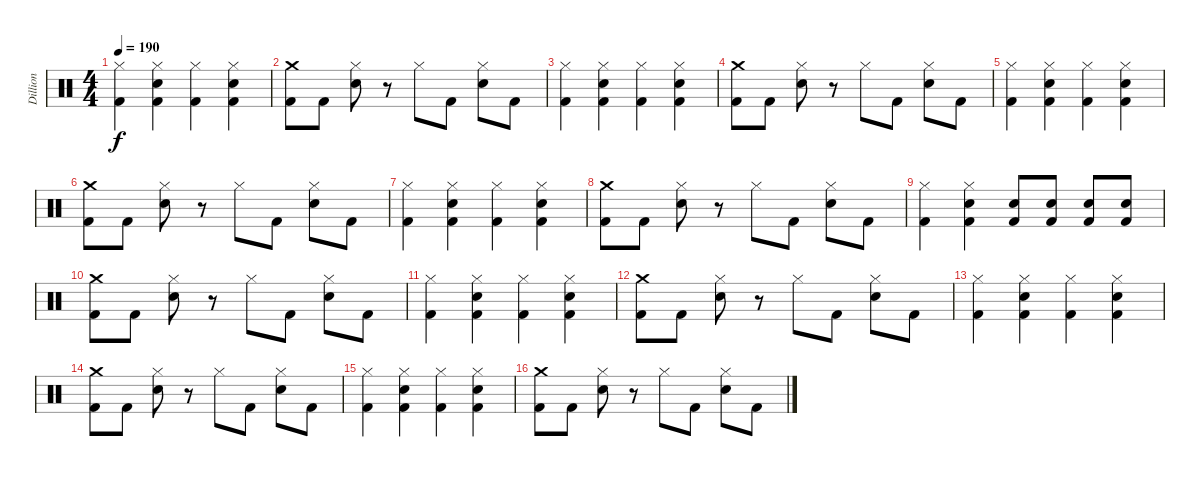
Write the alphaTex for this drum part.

\track ("Dillion" "Dillion") {instrument percussion}
\staff {score}
\articulation defaults
\ts (4 4)
\tempo 190
\clef neutral
\ks c
("Hi-Hat (closed)" "Kick (hit) 2").4{dy f} ("Hi-Hat (closed)" "Electric Snare (hit)" "Kick (hit) 2").4 ("Hi-Hat (closed)" "Kick (hit) 2").4 ("Hi-Hat (closed)" "Electric Snare (hit)" "Kick (hit) 2").4 |
("Crash medium (hit)" "Kick (hit) 2").8 "Kick (hit) 2".8 ("Hi-Hat (closed)" "Electric Snare (hit)").8 r.8 "Hi-Hat (closed)".8 "Kick (hit) 2".8 ("Hi-Hat (closed)" "Electric Snare (hit)").8 "Kick (hit) 2".8 |
("Hi-Hat (closed)" "Kick (hit) 2").4 ("Hi-Hat (closed)" "Electric Snare (hit)" "Kick (hit) 2").4 ("Hi-Hat (closed)" "Kick (hit) 2").4 ("Hi-Hat (closed)" "Electric Snare (hit)" "Kick (hit) 2").4 |
("Crash medium (hit)" "Kick (hit) 2").8 "Kick (hit) 2".8 ("Hi-Hat (closed)" "Electric Snare (hit)").8 r.8 "Hi-Hat (closed)".8 "Kick (hit) 2".8 ("Hi-Hat (closed)" "Electric Snare (hit)").8 "Kick (hit) 2".8 |
("Hi-Hat (closed)" "Kick (hit) 2").4 ("Hi-Hat (closed)" "Electric Snare (hit)" "Kick (hit) 2").4 ("Hi-Hat (closed)" "Kick (hit) 2").4 ("Hi-Hat (closed)" "Electric Snare (hit)" "Kick (hit) 2").4 |
("Crash medium (hit)" "Kick (hit) 2").8 "Kick (hit) 2".8 ("Hi-Hat (closed)" "Electric Snare (hit)").8 r.8 "Hi-Hat (closed)".8 "Kick (hit) 2".8 ("Hi-Hat (closed)" "Electric Snare (hit)").8 "Kick (hit) 2".8 |
("Hi-Hat (closed)" "Kick (hit) 2").4 ("Hi-Hat (closed)" "Electric Snare (hit)" "Kick (hit) 2").4 ("Hi-Hat (closed)" "Kick (hit) 2").4 ("Hi-Hat (closed)" "Electric Snare (hit)" "Kick (hit) 2").4 |
("Crash medium (hit)" "Kick (hit) 2").8 "Kick (hit) 2".8 ("Hi-Hat (closed)" "Electric Snare (hit)").8 r.8 "Hi-Hat (closed)".8 "Kick (hit) 2".8 ("Hi-Hat (closed)" "Electric Snare (hit)").8 "Kick (hit) 2".8 |
("Hi-Hat (closed)" "Kick (hit) 2").4 ("Hi-Hat (closed)" "Electric Snare (hit)" "Kick (hit) 2").4 ("Electric Snare (hit)" "Kick (hit) 2").8 ("Electric Snare (hit)" "Kick (hit) 2").8 ("Electric Snare (hit)" "Kick (hit) 2").8 ("Electric Snare (hit)" "Kick (hit) 2").8 |
("Crash medium (hit)" "Kick (hit) 2").8 "Kick (hit) 2".8 ("Hi-Hat (closed)" "Electric Snare (hit)").8 r.8 "Hi-Hat (closed)".8 "Kick (hit) 2".8 ("Hi-Hat (closed)" "Electric Snare (hit)").8 "Kick (hit) 2".8 |
("Hi-Hat (closed)" "Kick (hit) 2").4 ("Hi-Hat (closed)" "Electric Snare (hit)" "Kick (hit) 2").4 ("Hi-Hat (closed)" "Kick (hit) 2").4 ("Hi-Hat (closed)" "Electric Snare (hit)" "Kick (hit) 2").4 |
("Crash medium (hit)" "Kick (hit) 2").8 "Kick (hit) 2".8 ("Hi-Hat (closed)" "Electric Snare (hit)").8 r.8 "Hi-Hat (closed)".8 "Kick (hit) 2".8 ("Hi-Hat (closed)" "Electric Snare (hit)").8 "Kick (hit) 2".8 |
("Hi-Hat (closed)" "Kick (hit) 2").4 ("Hi-Hat (closed)" "Electric Snare (hit)" "Kick (hit) 2").4 ("Hi-Hat (closed)" "Kick (hit) 2").4 ("Hi-Hat (closed)" "Electric Snare (hit)" "Kick (hit) 2").4 |
("Crash medium (hit)" "Kick (hit) 2").8 "Kick (hit) 2".8 ("Hi-Hat (closed)" "Electric Snare (hit)").8 r.8 "Hi-Hat (closed)".8 "Kick (hit) 2".8 ("Hi-Hat (closed)" "Electric Snare (hit)").8 "Kick (hit) 2".8 |
("Hi-Hat (closed)" "Kick (hit) 2").4 ("Hi-Hat (closed)" "Electric Snare (hit)" "Kick (hit) 2").4 ("Hi-Hat (closed)" "Kick (hit) 2").4 ("Hi-Hat (closed)" "Electric Snare (hit)" "Kick (hit) 2").4 |
("Crash medium (hit)" "Kick (hit) 2").8 "Kick (hit) 2".8 ("Hi-Hat (closed)" "Electric Snare (hit)").8 r.8 "Hi-Hat (closed)".8 "Kick (hit) 2".8 ("Hi-Hat (closed)" "Electric Snare (hit)").8 "Kick (hit) 2".8
